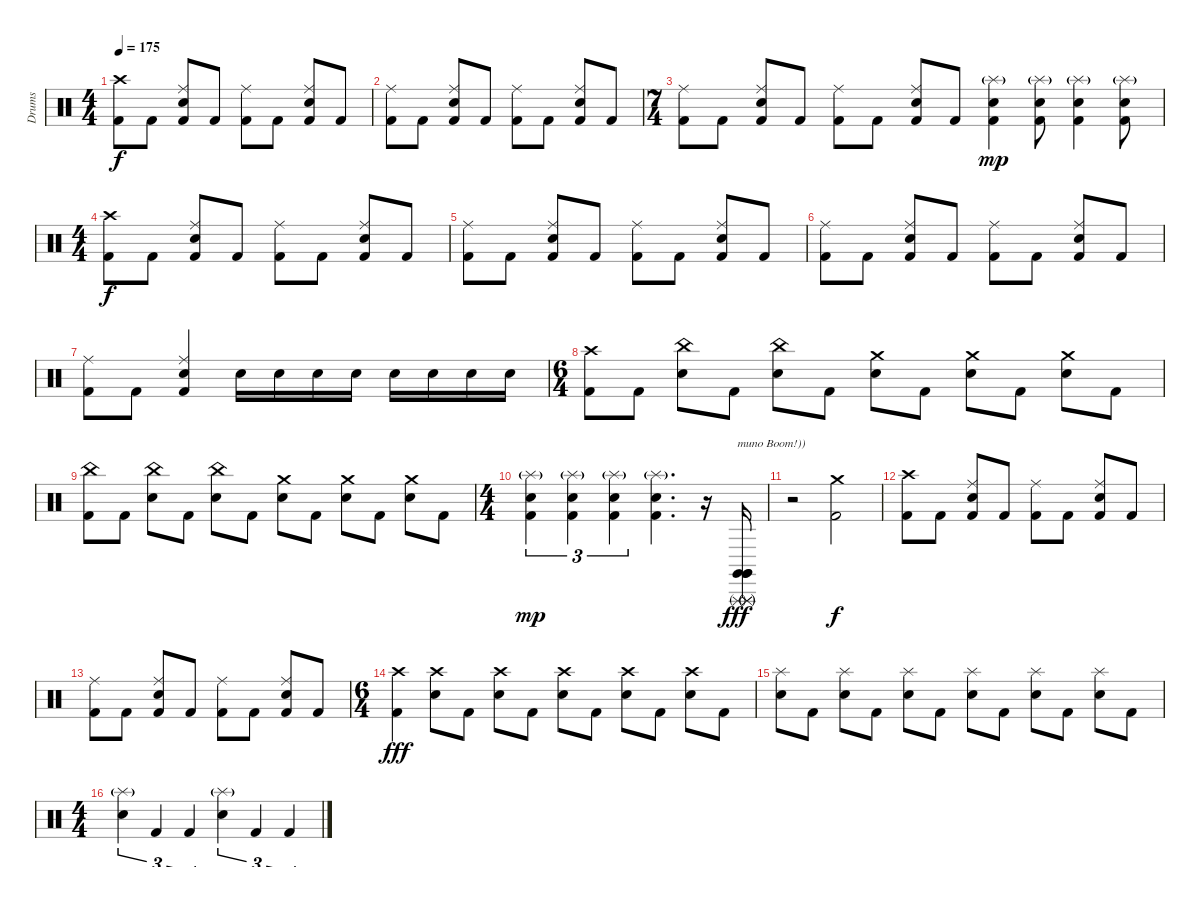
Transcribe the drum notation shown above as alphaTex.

\track ("Drums" "Drums") {instrument percussion}
\staff {score}
\articulation defaults
\ts (4 4)
\tempo 175
\clef neutral
\ks c
("Crash high (hit)" "Kick (hit) 2").8{dy f} "Kick (hit) 2".8 ("Ride (middle)" "Electric Snare (hit)" "Kick (hit) 2").8 "Kick (hit) 2".8 ("Ride (middle)" "Kick (hit) 2").8 "Kick (hit) 2".8 ("Ride (middle)" "Electric Snare (hit)" "Kick (hit) 2").8 "Kick (hit) 2".8 |
("Ride (middle)" "Kick (hit) 2").8 "Kick (hit) 2".8 ("Ride (middle)" "Electric Snare (hit)" "Kick (hit) 2").8 "Kick (hit) 2".8 ("Ride (middle)" "Kick (hit) 2").8 "Kick (hit) 2".8 ("Ride (middle)" "Electric Snare (hit)" "Kick (hit) 2").8 "Kick (hit) 2".8 |
\ts (7 4)
("Ride (middle)" "Kick (hit) 2").8 "Kick (hit) 2".8 ("Ride (middle)" "Electric Snare (hit)" "Kick (hit) 2").8 "Kick (hit) 2".8 ("Ride (middle)" "Kick (hit) 2").8 "Kick (hit) 2".8 ("Ride (middle)" "Electric Snare (hit)" "Kick (hit) 2").8 "Kick (hit) 2".8 ("Splash (hit)"{g} "Electric Snare (hit)" "Kick (hit) 2").4{dy mp} ("Splash (hit)"{g} "Electric Snare (hit)" "Kick (hit) 2").8 ("Splash (hit)"{g} "Electric Snare (hit)" "Kick (hit) 2").4 ("Splash (hit)"{g} "Electric Snare (hit)" "Kick (hit) 2").8 |
\ts (4 4)
("Crash high (hit)" "Kick (hit) 2").8{dy f} "Kick (hit) 2".8 ("Ride (middle)" "Electric Snare (hit)" "Kick (hit) 2").8 "Kick (hit) 2".8 ("Ride (middle)" "Kick (hit) 2").8 "Kick (hit) 2".8 ("Ride (middle)" "Electric Snare (hit)" "Kick (hit) 2").8 "Kick (hit) 2".8 |
("Ride (middle)" "Kick (hit) 2").8 "Kick (hit) 2".8 ("Ride (middle)" "Electric Snare (hit)" "Kick (hit) 2").8 "Kick (hit) 2".8 ("Ride (middle)" "Kick (hit) 2").8 "Kick (hit) 2".8 ("Ride (middle)" "Electric Snare (hit)" "Kick (hit) 2").8 "Kick (hit) 2".8 |
("Ride (middle)" "Kick (hit) 2").8 "Kick (hit) 2".8 ("Ride (middle)" "Electric Snare (hit)" "Kick (hit) 2").8 "Kick (hit) 2".8 ("Ride (middle)" "Kick (hit) 2").8 "Kick (hit) 2".8 ("Ride (middle)" "Electric Snare (hit)" "Kick (hit) 2").8 "Kick (hit) 2".8 |
("Ride (middle)" "Kick (hit) 2").8 "Kick (hit) 2".8 ("Ride (middle)" "Electric Snare (hit)" "Kick (hit) 2").4 "Electric Snare (hit)".16 "Electric Snare (hit)".16 "Electric Snare (hit)".16 "Electric Snare (hit)".16 "Electric Snare (hit)".16 "Electric Snare (hit)".16 "Electric Snare (hit)".16 "Electric Snare (hit)".16 |
\ts (6 4)
("Crash high (hit)" "Kick (hit) 2").8 "Kick (hit) 2".8 ("China (hit)" "Electric Snare (hit)").8 "Kick (hit) 2".8 ("China (hit)" "Electric Snare (hit)").8 "Kick (hit) 2".8 ("Crash medium (hit)" "Electric Snare (hit)").8 "Kick (hit) 2".8 ("Crash medium (hit)" "Electric Snare (hit)").8 "Kick (hit) 2".8 ("Crash medium (hit)" "Electric Snare (hit)").8 "Kick (hit) 2".8 |
("China (hit)" "Kick (hit) 2").8 "Kick (hit) 2".8 ("China (hit)" "Electric Snare (hit)").8 "Kick (hit) 2".8 ("China (hit)" "Electric Snare (hit)").8 "Kick (hit) 2".8 ("Crash medium (hit)" "Electric Snare (hit)").8 "Kick (hit) 2".8 ("Crash medium (hit)" "Electric Snare (hit)").8 "Kick (hit) 2".8 ("Crash medium (hit)" "Electric Snare (hit)").8 "Kick (hit) 2".8 |
\ts (4 4)
("Splash (hit)"{g} "Electric Snare (hit)" "Kick (hit) 2").4{tu (3 2) dy mp} ("Splash (hit)"{g} "Electric Snare (hit)" "Kick (hit) 2").4{tu (3 2)} ("Splash (hit)"{g} "Electric Snare (hit)" "Kick (hit) 2").4{tu (3 2)} ("Splash (hit)"{g} "Electric Snare (hit)" "Kick (hit) 2").4{d} r.16 ("Claves (hit)" "Claves (hit)" "Claves (hit)" "Triangle (rnute)" "Triangle (rnute)" "Triangle (rnute)").16{txt "типо Boom!))" dy fff volume 16} |
r.2 ("Crash medium (hit)" "Kick (hit) 2").2{dy f volume 14} |
("Crash high (hit)" "Kick (hit) 2").8 "Kick (hit) 2".8 ("Ride (middle)" "Electric Snare (hit)" "Kick (hit) 2").8 "Kick (hit) 2".8 ("Ride (middle)" "Kick (hit) 2").8 "Kick (hit) 2".8 ("Ride (middle)" "Electric Snare (hit)" "Kick (hit) 2").8 "Kick (hit) 2".8 |
("Ride (middle)" "Kick (hit) 2").8 "Kick (hit) 2".8 ("Ride (middle)" "Electric Snare (hit)" "Kick (hit) 2").8 "Kick (hit) 2".8 ("Ride (middle)" "Kick (hit) 2").8 "Kick (hit) 2".8 ("Ride (middle)" "Electric Snare (hit)" "Kick (hit) 2").8 "Kick (hit) 2".8 |
\ts (6 4)
("Crash high (hit)" "Kick (hit) 2").4{dy fff} ("Crash high (hit)" "Electric Snare (hit)").8 "Kick (hit) 2".8 ("Crash high (hit)" "Electric Snare (hit)").8 "Kick (hit) 2".8 ("Crash high (hit)" "Electric Snare (hit)").8 "Kick (hit) 2".8 ("Crash high (hit)" "Electric Snare (hit)").8 "Kick (hit) 2".8 ("Crash high (hit)" "Electric Snare (hit)").8 "Kick (hit) 2".8 |
("Splash (hit)" "Electric Snare (hit)").8 "Kick (hit) 2".8 ("Splash (hit)" "Electric Snare (hit)").8 "Kick (hit) 2".8 ("Splash (hit)" "Electric Snare (hit)").8 "Kick (hit) 2".8 ("Splash (hit)" "Electric Snare (hit)").8 "Kick (hit) 2".8 ("Splash (hit)" "Electric Snare (hit)").8 "Kick (hit) 2".8 ("Splash (hit)" "Electric Snare (hit)").8 "Kick (hit) 2".8 |
\ts (4 4)
("Splash (hit)"{g} "Electric Snare (hit)").4{tu (3 2)} "Kick (hit) 2".4{tu (3 2)} "Kick (hit) 2".4{tu (3 2)} ("Splash (hit)"{g} "Electric Snare (hit)").4{tu (3 2)} "Kick (hit) 2".4{tu (3 2)} "Kick (hit) 2".4{tu (3 2)}
